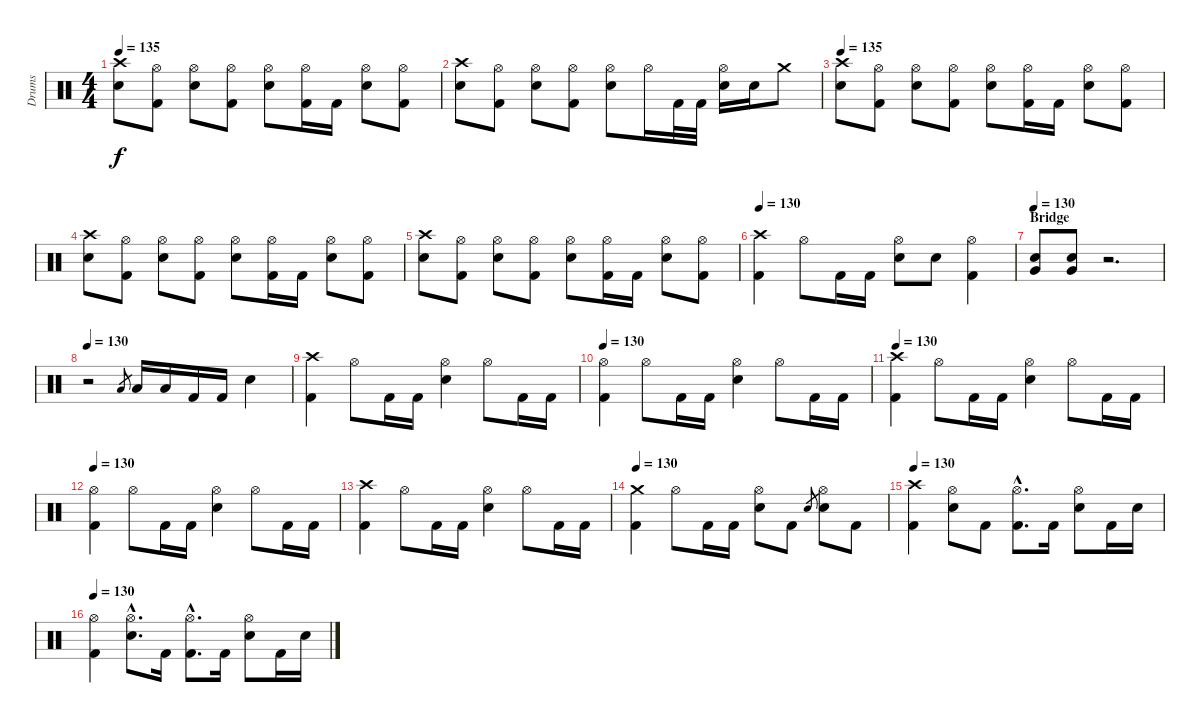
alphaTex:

\track ("Drums" "Drums") {instrument percussion}
\staff {score}
\articulation defaults
\ts (4 4)
\tempo 135
\clef neutral
\ks c
("Crash high (hit)" "Electric Snare (hit)").8{dy f} ("Hi-Hat (open)" "Kick (hit) 2").8 ("Hi-Hat (open)" "Electric Snare (hit)").8 ("Hi-Hat (open)" "Kick (hit) 2").8 ("Hi-Hat (open)" "Electric Snare (hit)").8 ("Hi-Hat (open)" "Kick (hit) 2").16 "Kick (hit) 2".16 ("Hi-Hat (open)" "Electric Snare (hit)").8 ("Hi-Hat (open)" "Kick (hit) 2").8 |
("Crash high (hit)" "Electric Snare (hit)").8 ("Hi-Hat (open)" "Kick (hit) 2").8 ("Hi-Hat (open)" "Electric Snare (hit)").8 ("Hi-Hat (open)" "Kick (hit) 2").8 ("Hi-Hat (open)" "Electric Snare (hit)").8 "Hi-Hat (open)".16 "Kick (hit) 2".32 "Kick (hit) 2".32 ("Hi-Hat (open)" "Electric Snare (hit)").16 "Electric Snare (hit)".16 "Crash medium (hit)".8 |
\tempo 135
("Crash high (hit)" "Electric Snare (hit)").8 ("Hi-Hat (open)" "Kick (hit) 2").8 ("Hi-Hat (open)" "Electric Snare (hit)").8 ("Hi-Hat (open)" "Kick (hit) 2").8 ("Hi-Hat (open)" "Electric Snare (hit)").8 ("Hi-Hat (open)" "Kick (hit) 2").16 "Kick (hit) 2".16 ("Hi-Hat (open)" "Electric Snare (hit)").8 ("Hi-Hat (open)" "Kick (hit) 2").8 |
("Crash high (hit)" "Electric Snare (hit)").8 ("Hi-Hat (open)" "Kick (hit) 2").8 ("Hi-Hat (open)" "Electric Snare (hit)").8 ("Hi-Hat (open)" "Kick (hit) 2").8 ("Hi-Hat (open)" "Electric Snare (hit)").8 ("Hi-Hat (open)" "Kick (hit) 2").16 "Kick (hit) 2".16 ("Hi-Hat (open)" "Electric Snare (hit)").8 ("Hi-Hat (open)" "Kick (hit) 2").8 |
("Crash high (hit)" "Electric Snare (hit)").8 ("Hi-Hat (open)" "Kick (hit) 2").8 ("Hi-Hat (open)" "Electric Snare (hit)").8 ("Hi-Hat (open)" "Kick (hit) 2").8 ("Hi-Hat (open)" "Electric Snare (hit)").8 ("Hi-Hat (open)" "Kick (hit) 2").16 "Kick (hit) 2".16 ("Hi-Hat (open)" "Electric Snare (hit)").8 ("Hi-Hat (open)" "Kick (hit) 2").8 |
\tempo 130
("Crash high (hit)" "Kick (hit) 2").4 "Hi-Hat (open)".8 "Kick (hit) 2".16 "Kick (hit) 2".16 ("Hi-Hat (open)" "Electric Snare (hit)").8 "Electric Snare (hit)".8 ("Hi-Hat (open)" "Kick (hit) 2").4 |
\section ("" "Bridge")
\tempo 130
("Very Low Tom (hit)" "Electric Snare (hit)").8 ("Very Low Tom (hit)" "Electric Snare (hit)").8 r.2{d} |
\tempo 130
r.2 "Low Tom (hit)".8{gr} "Low Tom (hit)".16 "Low Tom (hit)".16 "Kick (hit) 2".16 "Kick (hit) 2".16 "Electric Snare (hit)".4 |
("Crash high (hit)" "Kick (hit) 2").4 "Hi-Hat (open)".8 "Kick (hit) 2".16 "Kick (hit) 2".16 ("Hi-Hat (open)" "Electric Snare (hit)").4 "Hi-Hat (open)".8 "Kick (hit) 2".16 "Kick (hit) 2".16 |
\tempo 130
("Hi-Hat (open)" "Kick (hit) 2").4 "Hi-Hat (open)".8 "Kick (hit) 2".16 "Kick (hit) 2".16 ("Hi-Hat (open)" "Electric Snare (hit)").4 "Hi-Hat (open)".8 "Kick (hit) 2".16 "Kick (hit) 2".16 |
\tempo 130
("Crash high (hit)" "Kick (hit) 2").4 "Hi-Hat (open)".8 "Kick (hit) 2".16 "Kick (hit) 2".16 ("Hi-Hat (open)" "Electric Snare (hit)").4 "Hi-Hat (open)".8 "Kick (hit) 2".16 "Kick (hit) 2".16 |
\tempo 130
("Hi-Hat (open)" "Kick (hit) 2").4 "Hi-Hat (open)".8 "Kick (hit) 2".16 "Kick (hit) 2".16 ("Hi-Hat (open)" "Electric Snare (hit)").4 "Hi-Hat (open)".8 "Kick (hit) 2".16 "Kick (hit) 2".16 |
("Crash high (hit)" "Kick (hit) 2").4 "Hi-Hat (open)".8 "Kick (hit) 2".16 "Kick (hit) 2".16 ("Hi-Hat (open)" "Electric Snare (hit)").4 "Hi-Hat (open)".8 "Kick (hit) 2".16 "Kick (hit) 2".16 |
\tempo 130
("Crash medium (hit)" "Kick (hit) 2").4 "Hi-Hat (open)".8 "Kick (hit) 2".16 "Kick (hit) 2".16 ("Hi-Hat (open)" "Electric Snare (hit)").8 "Kick (hit) 2".8 "Electric Snare (hit)".8{gr} ("Hi-Hat (open)" "Electric Snare (hit)").8 "Kick (hit) 2".8 |
\tempo 130
("Crash high (hit)" "Kick (hit) 2").4 ("Hi-Hat (open)" "Electric Snare (hit)").8 "Kick (hit) 2".8 ("Hi-Hat (open)"{hac} "Kick (hit) 2"{hac}).8{d} "Kick (hit) 2".16 ("Hi-Hat (open)" "Electric Snare (hit)").8 "Kick (hit) 2".16 "Electric Snare (hit)".16 |
\tempo 130
("Hi-Hat (open)" "Kick (hit) 2").4 ("Hi-Hat (open)"{hac} "Electric Snare (hit)"{hac}).8{d} "Kick (hit) 2".16 ("Hi-Hat (open)"{hac} "Kick (hit) 2"{hac}).8{d} "Kick (hit) 2".16 ("Hi-Hat (open)" "Electric Snare (hit)").8 "Kick (hit) 2".16 "Electric Snare (hit)".16
